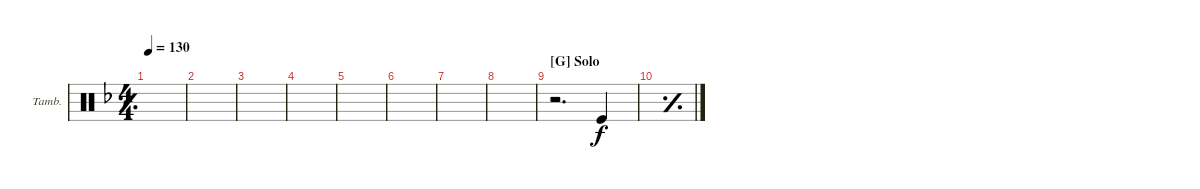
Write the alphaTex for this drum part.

\defaultSystemsLayout 4
\bracketExtendMode groupsimilarinstruments
\firstSystemTrackNameOrientation horizontal
\otherSystemsTrackNameOrientation horizontal
\track ("Tambourine" "Tamb.") {instrument percussion}
\staff {score}
\articulation defaults
\ts (4 4)
\tempo 130
\clef neutral
\simile simple
\ks f
|
|
|
|
|
|
|
|
\section ("G" "Solo")
r.2{d} "Kick (hit)".4 |
\simile simple
